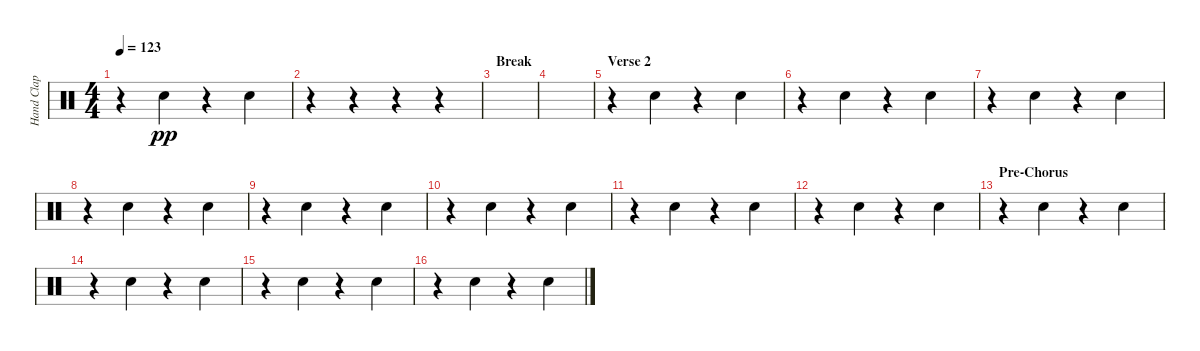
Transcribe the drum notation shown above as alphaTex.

\track ("Hand Clap" "Hand Clap") {instrument percussion}
\staff {score}
\articulation defaults
\ts (4 4)
\tempo 123
\clef neutral
\ks c
r.4{dy pp} "Hand Clap (hit)".4 r.4 "Hand Clap (hit)".4 |
r.4 r.4 r.4 r.4 |
\section ("" "Break")
|
|
\section ("" "Verse 2")
r.4 "Hand Clap (hit)".4 r.4 "Hand Clap (hit)".4 |
r.4 "Hand Clap (hit)".4 r.4 "Hand Clap (hit)".4 |
r.4 "Hand Clap (hit)".4 r.4 "Hand Clap (hit)".4 |
r.4 "Hand Clap (hit)".4 r.4 "Hand Clap (hit)".4 |
r.4 "Hand Clap (hit)".4 r.4 "Hand Clap (hit)".4 |
r.4 "Hand Clap (hit)".4 r.4 "Hand Clap (hit)".4 |
r.4 "Hand Clap (hit)".4 r.4 "Hand Clap (hit)".4 |
r.4 "Hand Clap (hit)".4 r.4 "Hand Clap (hit)".4 |
\section ("" "Pre-Chorus")
r.4 "Hand Clap (hit)".4 r.4 "Hand Clap (hit)".4 |
r.4 "Hand Clap (hit)".4 r.4 "Hand Clap (hit)".4 |
r.4 "Hand Clap (hit)".4 r.4 "Hand Clap (hit)".4 |
r.4 "Hand Clap (hit)".4 r.4 "Hand Clap (hit)".4
